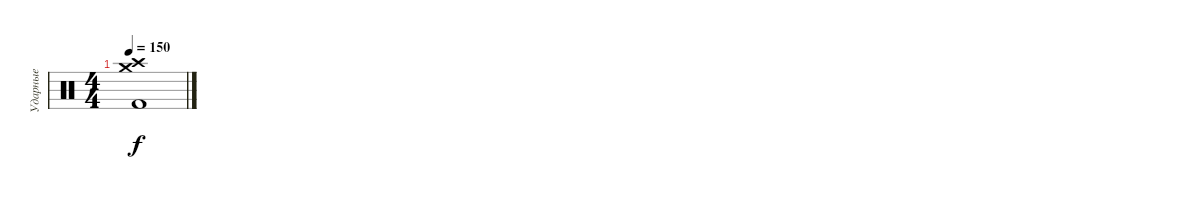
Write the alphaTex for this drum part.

\track ("Ударные" "Ударные") {instrument percussion}
\staff {score}
\articulation defaults
\ts (4 4)
\tempo 150
\clef neutral
\ks c
("Crash high (hit)" "Crash medium (hit)" "Kick (hit) 2").1{dy f}
